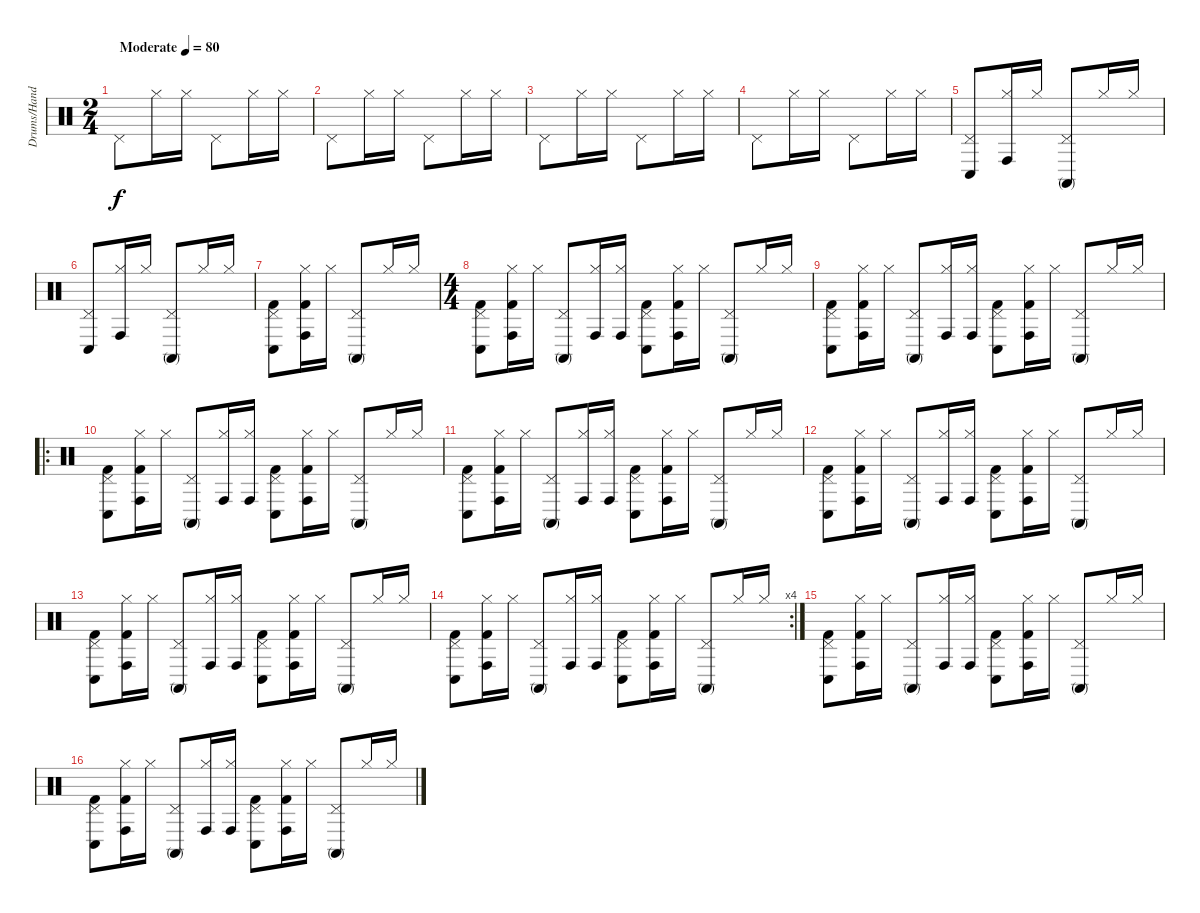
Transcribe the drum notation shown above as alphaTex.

\track ("Drums/Hand percussion" "Drums/Hand") {instrument percussion}
\staff {score}
\articulation defaults
\ts (2 4)
\tempo (80 "Moderate")
\clef neutral
\ks c "Pedal Hi-Hat (hit)".8{dy f} "Hi-Hat (closed)".16 "Hi-Hat (closed)".16 "Pedal Hi-Hat (hit)".8 "Hi-Hat (closed)".16 "Hi-Hat (closed)".16
|
"Pedal Hi-Hat (hit)".8 "Hi-Hat (closed)".16 "Hi-Hat (closed)".16 "Pedal Hi-Hat (hit)".8 "Hi-Hat (closed)".16 "Hi-Hat (closed)".16 |
"Pedal Hi-Hat (hit)".8 "Hi-Hat (closed)".16 "Hi-Hat (closed)".16 "Pedal Hi-Hat (hit)".8 "Hi-Hat (closed)".16 "Hi-Hat (closed)".16 |
"Pedal Hi-Hat (hit)".8 "Hi-Hat (closed)".16 "Hi-Hat (closed)".16 "Pedal Hi-Hat (hit)".8 "Hi-Hat (closed)".16 "Hi-Hat (closed)".16 |
("Pedal Hi-Hat (hit)" "Conga low (hit)").8 ("Hi-Hat (closed)" "Conga high (hit)").16 "Hi-Hat (closed)".16 ("Pedal Hi-Hat (hit)" "Conga high (mute)").8 "Hi-Hat (closed)".16 "Hi-Hat (closed)".16 |
("Pedal Hi-Hat (hit)" "Conga low (hit)").8 ("Hi-Hat (closed)" "Conga high (hit)").16 "Hi-Hat (closed)".16 ("Pedal Hi-Hat (hit)" "Conga high (mute)").8 "Hi-Hat (closed)".16 "Hi-Hat (closed)".16 |
("Pedal Hi-Hat (hit)" "Conga low (hit)" "Kick (hit) 2").8 ("Hi-Hat (closed)" "Conga high (hit)" "Kick (hit) 2").16 "Hi-Hat (closed)".16 ("Pedal Hi-Hat (hit)" "Conga high (mute)").8 "Hi-Hat (closed)".16 "Hi-Hat (closed)".16 |
\ts (4 4)
("Pedal Hi-Hat (hit)" "Conga low (hit)" "Kick (hit) 2").8 ("Hi-Hat (closed)" "Conga high (hit)" "Kick (hit) 2").16 "Hi-Hat (closed)".16 ("Pedal Hi-Hat (hit)" "Conga high (mute)").8 ("Hi-Hat (closed)" "Conga high (hit)").16 ("Hi-Hat (closed)" "Conga high (hit)").16 ("Pedal Hi-Hat (hit)" "Conga low (hit)" "Kick (hit) 2").8 ("Hi-Hat (closed)" "Conga high (hit)" "Kick (hit) 2").16 "Hi-Hat (closed)".16 ("Pedal Hi-Hat (hit)" "Conga high (mute)").8 "Hi-Hat (closed)".16 "Hi-Hat (closed)".16 |
("Pedal Hi-Hat (hit)" "Conga low (hit)" "Kick (hit) 2").8 ("Hi-Hat (closed)" "Conga high (hit)" "Kick (hit) 2").16 "Hi-Hat (closed)".16 ("Pedal Hi-Hat (hit)" "Conga high (mute)").8 ("Hi-Hat (closed)" "Conga high (hit)").16 ("Hi-Hat (closed)" "Conga high (hit)").16 ("Pedal Hi-Hat (hit)" "Conga low (hit)" "Kick (hit) 2").8 ("Hi-Hat (closed)" "Conga high (hit)" "Kick (hit) 2").16 "Hi-Hat (closed)".16 ("Pedal Hi-Hat (hit)" "Conga high (mute)").8 "Hi-Hat (closed)".16 "Hi-Hat (closed)".16 |
\ro
("Pedal Hi-Hat (hit)" "Conga low (hit)" "Kick (hit) 2").8 ("Hi-Hat (closed)" "Conga high (hit)" "Kick (hit) 2").16 "Hi-Hat (closed)".16 ("Pedal Hi-Hat (hit)" "Conga high (mute)").8 ("Hi-Hat (closed)" "Conga high (hit)").16 ("Hi-Hat (closed)" "Conga high (hit)").16 ("Pedal Hi-Hat (hit)" "Conga low (hit)" "Kick (hit) 2").8 ("Hi-Hat (closed)" "Conga high (hit)" "Kick (hit) 2").16 "Hi-Hat (closed)".16 ("Pedal Hi-Hat (hit)" "Conga high (mute)").8 "Hi-Hat (closed)".16 "Hi-Hat (closed)".16 |
("Pedal Hi-Hat (hit)" "Conga low (hit)" "Kick (hit) 2").8 ("Hi-Hat (closed)" "Conga high (hit)" "Kick (hit) 2").16 "Hi-Hat (closed)".16 ("Pedal Hi-Hat (hit)" "Conga high (mute)").8 ("Hi-Hat (closed)" "Conga high (hit)").16 ("Hi-Hat (closed)" "Conga high (hit)").16 ("Pedal Hi-Hat (hit)" "Conga low (hit)" "Kick (hit) 2").8 ("Hi-Hat (closed)" "Conga high (hit)" "Kick (hit) 2").16 "Hi-Hat (closed)".16 ("Pedal Hi-Hat (hit)" "Conga high (mute)").8 "Hi-Hat (closed)".16 "Hi-Hat (closed)".16 |
("Pedal Hi-Hat (hit)" "Conga low (hit)" "Kick (hit) 2").8 ("Hi-Hat (closed)" "Conga high (hit)" "Kick (hit) 2").16 "Hi-Hat (closed)".16 ("Pedal Hi-Hat (hit)" "Conga high (mute)").8 ("Hi-Hat (closed)" "Conga high (hit)").16 ("Hi-Hat (closed)" "Conga high (hit)").16 ("Pedal Hi-Hat (hit)" "Conga low (hit)" "Kick (hit) 2").8 ("Hi-Hat (closed)" "Conga high (hit)" "Kick (hit) 2").16 "Hi-Hat (closed)".16 ("Pedal Hi-Hat (hit)" "Conga high (mute)").8 "Hi-Hat (closed)".16 "Hi-Hat (closed)".16 |
("Pedal Hi-Hat (hit)" "Conga low (hit)" "Kick (hit) 2").8 ("Hi-Hat (closed)" "Conga high (hit)" "Kick (hit) 2").16 "Hi-Hat (closed)".16 ("Pedal Hi-Hat (hit)" "Conga high (mute)").8 ("Hi-Hat (closed)" "Conga high (hit)").16 ("Hi-Hat (closed)" "Conga high (hit)").16 ("Pedal Hi-Hat (hit)" "Conga low (hit)" "Kick (hit) 2").8 ("Hi-Hat (closed)" "Conga high (hit)" "Kick (hit) 2").16 "Hi-Hat (closed)".16 ("Pedal Hi-Hat (hit)" "Conga high (mute)").8 "Hi-Hat (closed)".16 "Hi-Hat (closed)".16 |
\rc 4
("Pedal Hi-Hat (hit)" "Conga low (hit)" "Kick (hit) 2").8 ("Hi-Hat (closed)" "Conga high (hit)" "Kick (hit) 2").16 "Hi-Hat (closed)".16 ("Pedal Hi-Hat (hit)" "Conga high (mute)").8 ("Hi-Hat (closed)" "Conga high (hit)").16 ("Hi-Hat (closed)" "Conga high (hit)").16 ("Pedal Hi-Hat (hit)" "Conga low (hit)" "Kick (hit) 2").8 ("Hi-Hat (closed)" "Conga high (hit)" "Kick (hit) 2").16 "Hi-Hat (closed)".16 ("Pedal Hi-Hat (hit)" "Conga high (mute)").8 "Hi-Hat (closed)".16 "Hi-Hat (closed)".16 |
("Pedal Hi-Hat (hit)" "Conga low (hit)" "Kick (hit) 2").8 ("Hi-Hat (closed)" "Conga high (hit)" "Kick (hit) 2").16 "Hi-Hat (closed)".16 ("Pedal Hi-Hat (hit)" "Conga high (mute)").8 ("Hi-Hat (closed)" "Conga high (hit)").16 ("Hi-Hat (closed)" "Conga high (hit)").16 ("Pedal Hi-Hat (hit)" "Conga low (hit)" "Kick (hit) 2").8 ("Hi-Hat (closed)" "Conga high (hit)" "Kick (hit) 2").16 "Hi-Hat (closed)".16 ("Pedal Hi-Hat (hit)" "Conga high (mute)").8 "Hi-Hat (closed)".16 "Hi-Hat (closed)".16 |
("Pedal Hi-Hat (hit)" "Conga low (hit)" "Kick (hit) 2").8 ("Hi-Hat (closed)" "Conga high (hit)" "Kick (hit) 2").16 "Hi-Hat (closed)".16 ("Pedal Hi-Hat (hit)" "Conga high (mute)").8 ("Hi-Hat (closed)" "Conga high (hit)").16 ("Hi-Hat (closed)" "Conga high (hit)").16 ("Pedal Hi-Hat (hit)" "Conga low (hit)" "Kick (hit) 2").8 ("Hi-Hat (closed)" "Conga high (hit)" "Kick (hit) 2").16 "Hi-Hat (closed)".16 ("Pedal Hi-Hat (hit)" "Conga high (mute)").8 "Hi-Hat (closed)".16 "Hi-Hat (closed)".16
